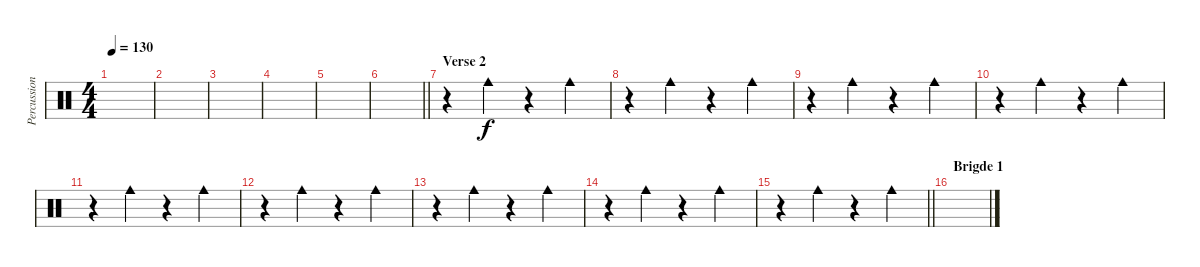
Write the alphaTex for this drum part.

\track ("Percussion 2" "Percussion") {instrument percussion}
\staff {score}
\articulation defaults
\ts (4 4)
\tempo 130
\clef neutral
\ks c
|
|
|
|
|
\barLineRight lightlight
|
\section ("" "Verse 2")
r.4 "Cowbell medium (hit)".4 r.4 "Cowbell medium (hit)".4 |
r.4 "Cowbell medium (hit)".4 r.4 "Cowbell medium (hit)".4 |
r.4 "Cowbell medium (hit)".4 r.4 "Cowbell medium (hit)".4 |
r.4 "Cowbell medium (hit)".4 r.4 "Cowbell medium (hit)".4 |
r.4 "Cowbell medium (hit)".4 r.4 "Cowbell medium (hit)".4 |
r.4 "Cowbell medium (hit)".4 r.4 "Cowbell medium (hit)".4 |
r.4 "Cowbell medium (hit)".4 r.4 "Cowbell medium (hit)".4 |
r.4 "Cowbell medium (hit)".4 r.4 "Cowbell medium (hit)".4 |
\barLineRight lightlight
r.4 "Cowbell medium (hit)".4 r.4 "Cowbell medium (hit)".4 |
\section ("" "Brigde 1")
